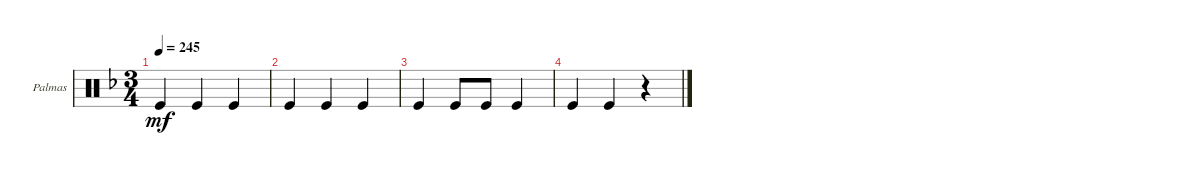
\defaultSystemsLayout 4
\bracketExtendMode groupsimilarinstruments
\firstSystemTrackNameOrientation horizontal
\otherSystemsTrackNameOrientation horizontal
\track ("Palmas" "Palmas") {instrument percussion}
\staff {score}
\articulation defaults
\ts (3 4)
\tempo 245
\clef neutral
\ks f "Kick (hit)".4{dy mf} "Kick (hit)".4 "Kick (hit)".4
|
"Kick (hit)".4 "Kick (hit)".4 "Kick (hit)".4 |
"Kick (hit)".4 "Kick (hit)".8 "Kick (hit)".8 "Kick (hit)".4 |
"Kick (hit)".4 "Kick (hit)".4 r.4
